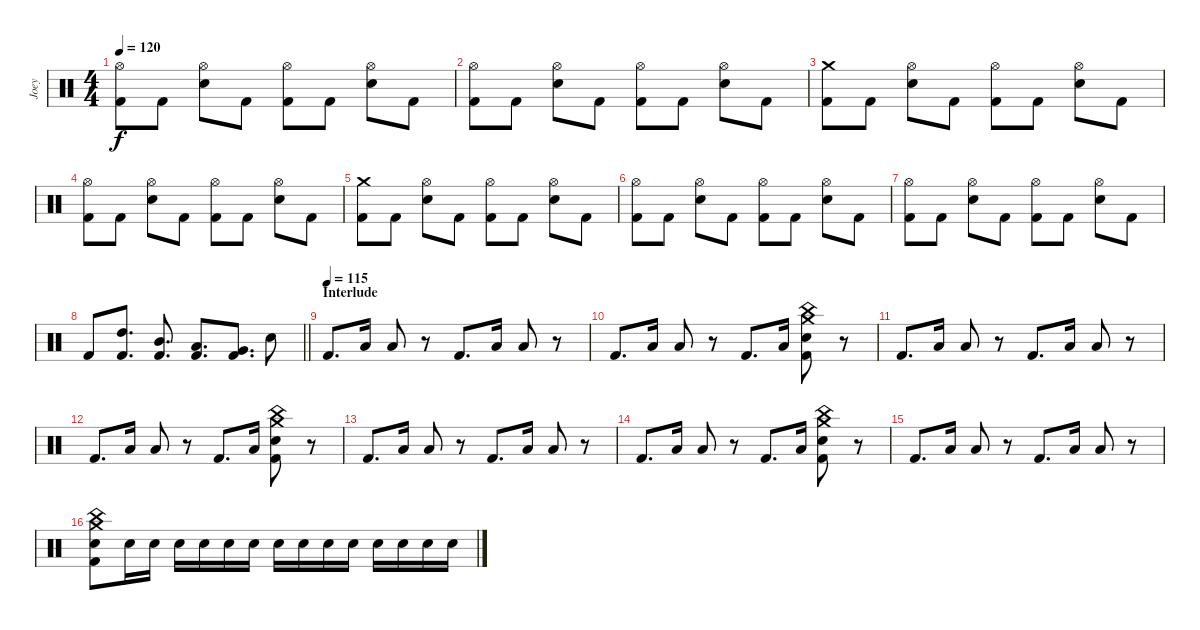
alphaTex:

\track ("Joey" "Joey") {instrument percussion}
\staff {score}
\articulation defaults
\ts (4 4)
\tempo 120
\clef neutral
\ks c
("Hi-Hat (open)" "Kick (hit) 2").8{dy f} "Kick (hit) 2".8 ("Hi-Hat (open)" "Electric Snare (hit)").8 "Kick (hit) 2".8 ("Hi-Hat (open)" "Kick (hit) 2").8 "Kick (hit) 2".8 ("Hi-Hat (open)" "Electric Snare (hit)").8 "Kick (hit) 2".8 |
("Hi-Hat (open)" "Kick (hit) 2").8 "Kick (hit) 2".8 ("Hi-Hat (open)" "Electric Snare (hit)").8 "Kick (hit) 2".8 ("Hi-Hat (open)" "Kick (hit) 2").8 "Kick (hit) 2".8 ("Hi-Hat (open)" "Electric Snare (hit)").8 "Kick (hit) 2".8 |
("Crash medium (hit)" "Kick (hit) 2").8 "Kick (hit) 2".8 ("Hi-Hat (open)" "Electric Snare (hit)").8 "Kick (hit) 2".8 ("Hi-Hat (open)" "Kick (hit) 2").8 "Kick (hit) 2".8 ("Hi-Hat (open)" "Electric Snare (hit)").8 "Kick (hit) 2".8 |
("Hi-Hat (open)" "Kick (hit) 2").8 "Kick (hit) 2".8 ("Hi-Hat (open)" "Electric Snare (hit)").8 "Kick (hit) 2".8 ("Hi-Hat (open)" "Kick (hit) 2").8 "Kick (hit) 2".8 ("Hi-Hat (open)" "Electric Snare (hit)").8 "Kick (hit) 2".8 |
("Crash medium (hit)" "Kick (hit) 2").8 "Kick (hit) 2".8 ("Hi-Hat (open)" "Electric Snare (hit)").8 "Kick (hit) 2".8 ("Hi-Hat (open)" "Kick (hit) 2").8 "Kick (hit) 2".8 ("Hi-Hat (open)" "Electric Snare (hit)").8 "Kick (hit) 2".8 |
("Hi-Hat (open)" "Kick (hit) 2").8 "Kick (hit) 2".8 ("Hi-Hat (open)" "Electric Snare (hit)").8 "Kick (hit) 2".8 ("Hi-Hat (open)" "Kick (hit) 2").8 "Kick (hit) 2".8 ("Hi-Hat (open)" "Electric Snare (hit)").8 "Kick (hit) 2".8 |
("Hi-Hat (open)" "Kick (hit) 2").8 "Kick (hit) 2".8 ("Hi-Hat (open)" "Electric Snare (hit)").8 "Kick (hit) 2".8 ("Hi-Hat (open)" "Kick (hit) 2").8 "Kick (hit) 2".8 ("Hi-Hat (open)" "Electric Snare (hit)").8 "Kick (hit) 2".8 |
\barLineRight lightlight "Kick (hit) 2".8
("High Tom (hit)" "Kick (hit) 2").8{d} ("Mid Tom (hit)" "Kick (hit) 2").8{d} ("Low Tom (hit)" "Kick (hit) 2").8{d} ("Very Low Tom (hit)" "Kick (hit) 2").8{d} "Electric Snare (hit)".8 |
\section ("" "Interlude")
\tempo (115)
"Kick (hit) 2".8{d} "Low Tom (hit)".16 "Low Tom (hit)".8 r.8 "Kick (hit) 2".8{d} "Low Tom (hit)".16 "Low Tom (hit)".8 r.8 |
"Kick (hit) 2".8{d} "Low Tom (hit)".16 "Low Tom (hit)".8 r.8 "Kick (hit) 2".8{d} "Low Tom (hit)".16 ("Crash medium (hit)" "China (hit)" "Electric Snare (hit)" "Kick (hit) 2").8 r.8 |
"Kick (hit) 2".8{d} "Low Tom (hit)".16 "Low Tom (hit)".8 r.8 "Kick (hit) 2".8{d} "Low Tom (hit)".16 "Low Tom (hit)".8 r.8 |
"Kick (hit) 2".8{d} "Low Tom (hit)".16 "Low Tom (hit)".8 r.8 "Kick (hit) 2".8{d} "Low Tom (hit)".16 ("Crash medium (hit)" "China (hit)" "Electric Snare (hit)" "Kick (hit) 2").8 r.8 |
"Kick (hit) 2".8{d} "Low Tom (hit)".16 "Low Tom (hit)".8 r.8 "Kick (hit) 2".8{d} "Low Tom (hit)".16 "Low Tom (hit)".8 r.8 |
"Kick (hit) 2".8{d} "Low Tom (hit)".16 "Low Tom (hit)".8 r.8 "Kick (hit) 2".8{d} "Low Tom (hit)".16 ("Crash medium (hit)" "China (hit)" "Electric Snare (hit)" "Kick (hit) 2").8 r.8 |
"Kick (hit) 2".8{d} "Low Tom (hit)".16 "Low Tom (hit)".8 r.8 "Kick (hit) 2".8{d} "Low Tom (hit)".16 "Low Tom (hit)".8 r.8 |
("Crash medium (hit)" "China (hit)" "Electric Snare (hit)" "Kick (hit) 2").8 "Electric Snare (hit)".16 "Electric Snare (hit)".16 "Electric Snare (hit)".16 "Electric Snare (hit)".16 "Electric Snare (hit)".16 "Electric Snare (hit)".16 "Electric Snare (hit)".16 "Electric Snare (hit)".16 "Electric Snare (hit)".16 "Electric Snare (hit)".16 "Electric Snare (hit)".16 "Electric Snare (hit)".16 "Electric Snare (hit)".16 "Electric Snare (hit)".16
